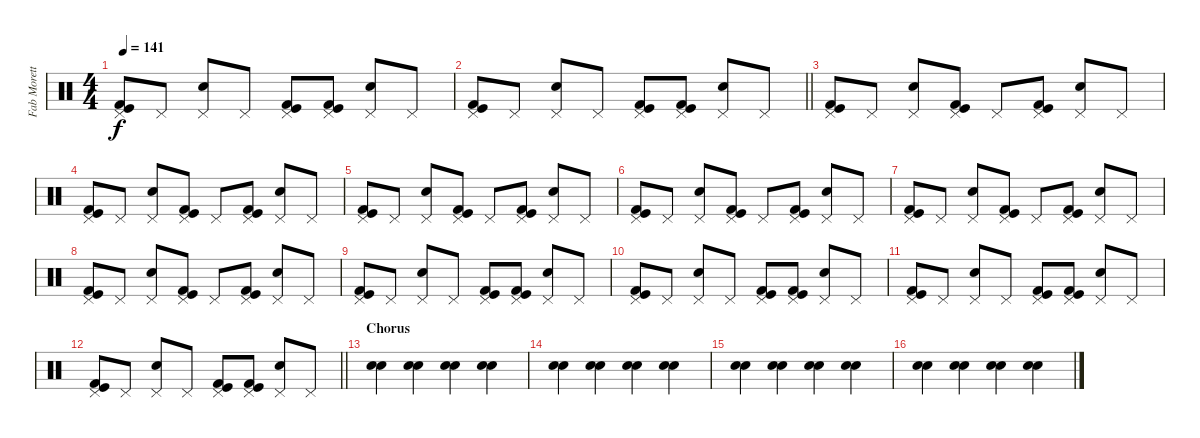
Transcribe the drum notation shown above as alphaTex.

\track ("Fab Moretti - Drums" "Fab Morett") {instrument percussion}
\staff {score}
\articulation defaults
\ts (4 4)
\tempo 141
\clef neutral
\ks c
("Pedal Hi-Hat (hit)" "Kick (hit) 2" "Kick (hit)").8{dy f} "Pedal Hi-Hat (hit)".8 ("Pedal Hi-Hat (hit)" "Snare (hit) 2").8 "Pedal Hi-Hat (hit)".8 ("Pedal Hi-Hat (hit)" "Kick (hit) 2" "Kick (hit)").8 ("Pedal Hi-Hat (hit)" "Kick (hit) 2" "Kick (hit)").8 ("Pedal Hi-Hat (hit)" "Snare (hit) 2").8 "Pedal Hi-Hat (hit)".8 |
\barLineRight lightlight
("Pedal Hi-Hat (hit)" "Kick (hit) 2" "Kick (hit)").8 "Pedal Hi-Hat (hit)".8 ("Pedal Hi-Hat (hit)" "Snare (hit) 2").8 "Pedal Hi-Hat (hit)".8 ("Pedal Hi-Hat (hit)" "Kick (hit) 2" "Kick (hit)").8 ("Pedal Hi-Hat (hit)" "Kick (hit) 2" "Kick (hit)").8 ("Pedal Hi-Hat (hit)" "Snare (hit) 2").8 "Pedal Hi-Hat (hit)".8 |
("Pedal Hi-Hat (hit)" "Kick (hit) 2" "Kick (hit)").8 "Pedal Hi-Hat (hit)".8 ("Pedal Hi-Hat (hit)" "Snare (hit) 2").8 ("Pedal Hi-Hat (hit)" "Kick (hit) 2" "Kick (hit)").8 "Pedal Hi-Hat (hit)".8 ("Pedal Hi-Hat (hit)" "Kick (hit) 2" "Kick (hit)").8 ("Pedal Hi-Hat (hit)" "Snare (hit) 2").8 "Pedal Hi-Hat (hit)".8 |
("Pedal Hi-Hat (hit)" "Kick (hit) 2" "Kick (hit)").8 "Pedal Hi-Hat (hit)".8 ("Pedal Hi-Hat (hit)" "Snare (hit) 2").8 ("Pedal Hi-Hat (hit)" "Kick (hit) 2" "Kick (hit)").8 "Pedal Hi-Hat (hit)".8 ("Pedal Hi-Hat (hit)" "Kick (hit) 2" "Kick (hit)").8 ("Pedal Hi-Hat (hit)" "Snare (hit) 2").8 "Pedal Hi-Hat (hit)".8 |
("Pedal Hi-Hat (hit)" "Kick (hit) 2" "Kick (hit)").8 "Pedal Hi-Hat (hit)".8 ("Pedal Hi-Hat (hit)" "Snare (hit) 2").8 ("Pedal Hi-Hat (hit)" "Kick (hit) 2" "Kick (hit)").8 "Pedal Hi-Hat (hit)".8 ("Pedal Hi-Hat (hit)" "Kick (hit) 2" "Kick (hit)").8 ("Pedal Hi-Hat (hit)" "Snare (hit) 2").8 "Pedal Hi-Hat (hit)".8 |
("Pedal Hi-Hat (hit)" "Kick (hit) 2" "Kick (hit)").8 "Pedal Hi-Hat (hit)".8 ("Pedal Hi-Hat (hit)" "Snare (hit) 2").8 ("Pedal Hi-Hat (hit)" "Kick (hit) 2" "Kick (hit)").8 "Pedal Hi-Hat (hit)".8 ("Pedal Hi-Hat (hit)" "Kick (hit) 2" "Kick (hit)").8 ("Pedal Hi-Hat (hit)" "Snare (hit) 2").8 "Pedal Hi-Hat (hit)".8 |
("Pedal Hi-Hat (hit)" "Kick (hit) 2" "Kick (hit)").8 "Pedal Hi-Hat (hit)".8 ("Pedal Hi-Hat (hit)" "Snare (hit) 2").8 ("Pedal Hi-Hat (hit)" "Kick (hit) 2" "Kick (hit)").8 "Pedal Hi-Hat (hit)".8 ("Pedal Hi-Hat (hit)" "Kick (hit) 2" "Kick (hit)").8 ("Pedal Hi-Hat (hit)" "Snare (hit) 2").8 "Pedal Hi-Hat (hit)".8 |
("Pedal Hi-Hat (hit)" "Kick (hit) 2" "Kick (hit)").8 "Pedal Hi-Hat (hit)".8 ("Pedal Hi-Hat (hit)" "Snare (hit) 2").8 ("Pedal Hi-Hat (hit)" "Kick (hit) 2" "Kick (hit)").8 "Pedal Hi-Hat (hit)".8 ("Pedal Hi-Hat (hit)" "Kick (hit) 2" "Kick (hit)").8 ("Pedal Hi-Hat (hit)" "Snare (hit) 2").8 "Pedal Hi-Hat (hit)".8 |
("Pedal Hi-Hat (hit)" "Kick (hit) 2" "Kick (hit)").8 "Pedal Hi-Hat (hit)".8 ("Pedal Hi-Hat (hit)" "Snare (hit) 2").8 "Pedal Hi-Hat (hit)".8 ("Pedal Hi-Hat (hit)" "Kick (hit) 2" "Kick (hit)").8 ("Pedal Hi-Hat (hit)" "Kick (hit) 2" "Kick (hit)").8 ("Pedal Hi-Hat (hit)" "Snare (hit) 2").8 "Pedal Hi-Hat (hit)".8 |
("Pedal Hi-Hat (hit)" "Kick (hit) 2" "Kick (hit)").8 "Pedal Hi-Hat (hit)".8 ("Pedal Hi-Hat (hit)" "Snare (hit) 2").8 "Pedal Hi-Hat (hit)".8 ("Pedal Hi-Hat (hit)" "Kick (hit) 2" "Kick (hit)").8 ("Pedal Hi-Hat (hit)" "Kick (hit) 2" "Kick (hit)").8 ("Pedal Hi-Hat (hit)" "Snare (hit) 2").8 "Pedal Hi-Hat (hit)".8 |
("Pedal Hi-Hat (hit)" "Kick (hit) 2" "Kick (hit)").8 "Pedal Hi-Hat (hit)".8 ("Pedal Hi-Hat (hit)" "Snare (hit) 2").8 "Pedal Hi-Hat (hit)".8 ("Pedal Hi-Hat (hit)" "Kick (hit) 2" "Kick (hit)").8 ("Pedal Hi-Hat (hit)" "Kick (hit) 2" "Kick (hit)").8 ("Pedal Hi-Hat (hit)" "Snare (hit) 2").8 "Pedal Hi-Hat (hit)".8 |
\barLineRight lightlight
("Pedal Hi-Hat (hit)" "Kick (hit) 2" "Kick (hit)").8 "Pedal Hi-Hat (hit)".8 ("Pedal Hi-Hat (hit)" "Snare (hit) 2").8 "Pedal Hi-Hat (hit)".8 ("Pedal Hi-Hat (hit)" "Kick (hit) 2" "Kick (hit)").8 ("Pedal Hi-Hat (hit)" "Kick (hit) 2" "Kick (hit)").8 ("Pedal Hi-Hat (hit)" "Snare (hit) 2").8 "Pedal Hi-Hat (hit)".8 |
\section ("" "Chorus")
("Snare (hit) 2" "Snare (hit) 2").4 ("Snare (hit) 2" "Snare (hit) 2").4 ("Snare (hit) 2" "Snare (hit) 2").4 ("Snare (hit) 2" "Snare (hit) 2").4 |
("Snare (hit) 2" "Snare (hit) 2").4 ("Snare (hit) 2" "Snare (hit) 2").4 ("Snare (hit) 2" "Snare (hit) 2").4 ("Snare (hit) 2" "Snare (hit) 2").4 |
("Snare (hit) 2" "Snare (hit) 2").4 ("Snare (hit) 2" "Snare (hit) 2").4 ("Snare (hit) 2" "Snare (hit) 2").4 ("Snare (hit) 2" "Snare (hit) 2").4 |
("Snare (hit) 2" "Snare (hit) 2").4 ("Snare (hit) 2" "Snare (hit) 2").4 ("Snare (hit) 2" "Snare (hit) 2").4 ("Snare (hit) 2" "Snare (hit) 2").4
